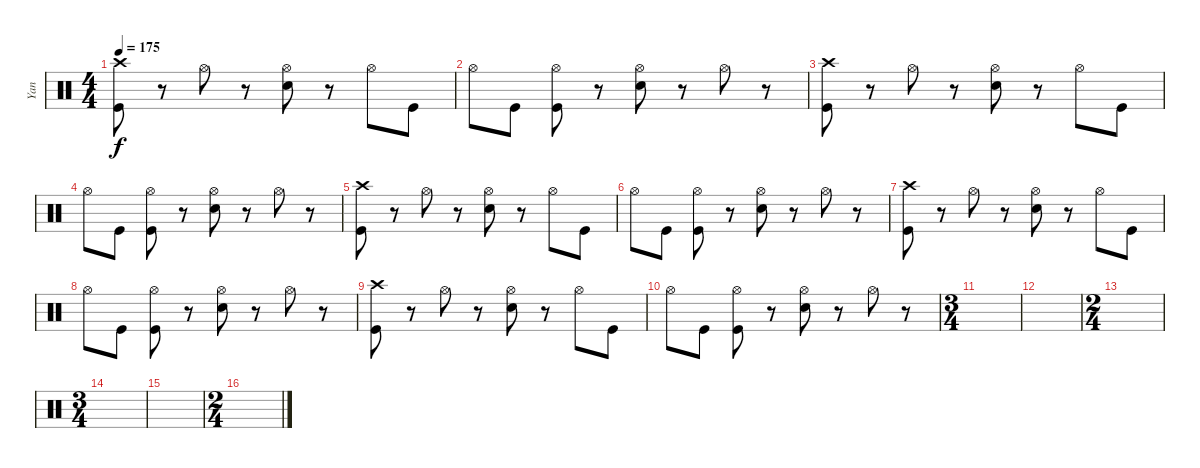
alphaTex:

\track ("Yan" "Yan") {instrument percussion}
\staff {score}
\articulation defaults
\ts (4 4)
\tempo 175
\clef neutral
\ks c
("Crash high (hit)" "Kick (hit)").8{dy f} r.8 "Hi-Hat (open)".8 r.8 ("Hi-Hat (open)" "Snare (hit) 2").8 r.8 "Hi-Hat (open)".8 "Kick (hit)".8 |
"Hi-Hat (open)".8 "Kick (hit)".8 ("Hi-Hat (open)" "Kick (hit)").8 r.8 ("Hi-Hat (open)" "Snare (hit) 2").8 r.8 "Hi-Hat (open)".8 r.8 |
("Crash high (hit)" "Kick (hit)").8 r.8 "Hi-Hat (open)".8 r.8 ("Hi-Hat (open)" "Snare (hit) 2").8 r.8 "Hi-Hat (open)".8 "Kick (hit)".8 |
"Hi-Hat (open)".8 "Kick (hit)".8 ("Hi-Hat (open)" "Kick (hit)").8 r.8 ("Hi-Hat (open)" "Snare (hit) 2").8 r.8 "Hi-Hat (open)".8 r.8 |
("Crash high (hit)" "Kick (hit)").8 r.8 "Hi-Hat (open)".8 r.8 ("Hi-Hat (open)" "Snare (hit) 2").8 r.8 "Hi-Hat (open)".8 "Kick (hit)".8 |
"Hi-Hat (open)".8 "Kick (hit)".8 ("Hi-Hat (open)" "Kick (hit)").8 r.8 ("Hi-Hat (open)" "Snare (hit) 2").8 r.8 "Hi-Hat (open)".8 r.8 |
("Crash high (hit)" "Kick (hit)").8 r.8 "Hi-Hat (open)".8 r.8 ("Hi-Hat (open)" "Snare (hit) 2").8 r.8 "Hi-Hat (open)".8 "Kick (hit)".8 |
"Hi-Hat (open)".8 "Kick (hit)".8 ("Hi-Hat (open)" "Kick (hit)").8 r.8 ("Hi-Hat (open)" "Snare (hit) 2").8 r.8 "Hi-Hat (open)".8 r.8 |
("Crash high (hit)" "Kick (hit)").8 r.8 "Hi-Hat (open)".8 r.8 ("Hi-Hat (open)" "Snare (hit) 2").8 r.8 "Hi-Hat (open)".8 "Kick (hit)".8 |
"Hi-Hat (open)".8 "Kick (hit)".8 ("Hi-Hat (open)" "Kick (hit)").8 r.8 ("Hi-Hat (open)" "Snare (hit) 2").8 r.8 "Hi-Hat (open)".8 r.8 |
\ts (3 4)
|
|
\ts (2 4)
|
\ts (3 4)
|
|
\ts (2 4)
